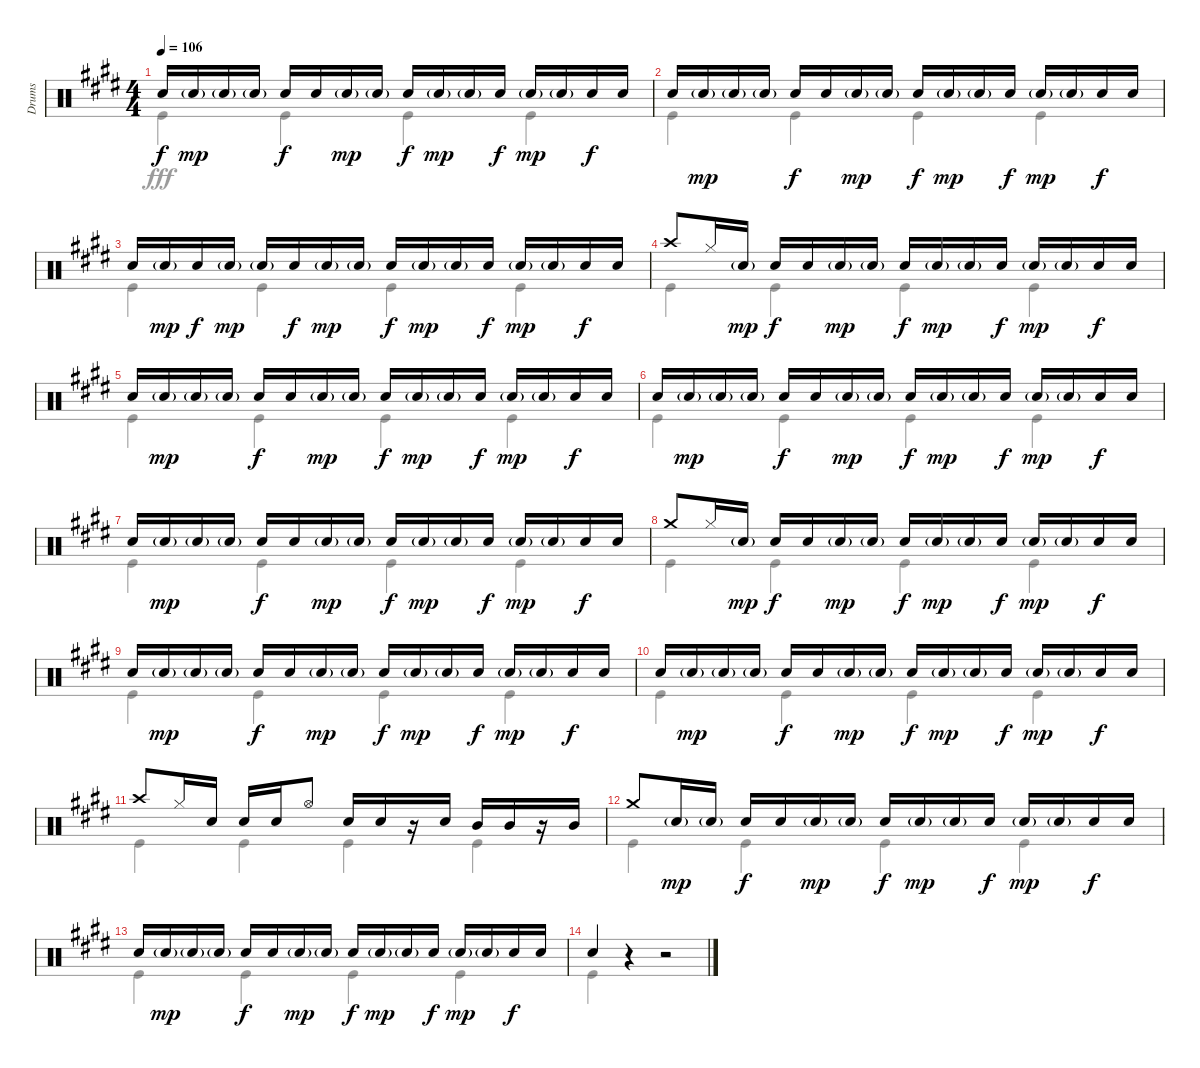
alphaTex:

\track ("Drums" "Drums") {instrument percussion}
\staff {score}
\articulation defaults
\voice
\ts (4 4)
\tempo 106
\clef neutral
\ks e "Snare (hit) 2".16{dy f} "Snare (hit) 2"{g}.16{dy mp} "Snare (hit) 2"{g}.16 "Snare (hit) 2"{g}.16 "Snare (hit) 2".16{dy f} "Snare (hit) 2".16 "Snare (hit) 2"{g}.16{dy mp} "Snare (hit) 2"{g}.16 "Snare (hit) 2".16{dy f} "Snare (hit) 2"{g}.16{dy mp} "Snare (hit) 2"{g}.16 "Snare (hit) 2".16{dy f} "Snare (hit) 2"{g}.16{dy mp} "Snare (hit) 2"{g}.16 "Snare (hit) 2".16{dy f} "Snare (hit) 2".16
|
"Snare (hit) 2".16 "Snare (hit) 2"{g}.16{dy mp} "Snare (hit) 2"{g}.16 "Snare (hit) 2"{g}.16 "Snare (hit) 2".16{dy f} "Snare (hit) 2".16 "Snare (hit) 2"{g}.16{dy mp} "Snare (hit) 2"{g}.16 "Snare (hit) 2".16{dy f} "Snare (hit) 2"{g}.16{dy mp} "Snare (hit) 2"{g}.16 "Snare (hit) 2".16{dy f} "Snare (hit) 2"{g}.16{dy mp} "Snare (hit) 2"{g}.16 "Snare (hit) 2".16{dy f} "Snare (hit) 2".16 |
"Snare (hit) 2".16 "Snare (hit) 2"{g}.16{dy mp} "Snare (hit) 2".16{dy f} "Snare (hit) 2"{g}.16{dy mp} "Snare (hit) 2"{g}.16 "Snare (hit) 2".16{dy f} "Snare (hit) 2"{g}.16{dy mp} "Snare (hit) 2"{g}.16 "Snare (hit) 2".16{dy f} "Snare (hit) 2"{g}.16{dy mp} "Snare (hit) 2"{g}.16 "Snare (hit) 2".16{dy f} "Snare (hit) 2"{g}.16{dy mp} "Snare (hit) 2"{g}.16 "Snare (hit) 2".16{dy f} "Snare (hit) 2".16 |
"Crash high (hit)".8 "Hi-Hat (closed)".16 "Snare (hit) 2"{g}.16{dy mp} "Snare (hit) 2".16{dy f} "Snare (hit) 2".16 "Snare (hit) 2"{g}.16{dy mp} "Snare (hit) 2"{g}.16 "Snare (hit) 2".16{dy f} "Snare (hit) 2"{g}.16{dy mp} "Snare (hit) 2"{g}.16 "Snare (hit) 2".16{dy f} "Snare (hit) 2"{g}.16{dy mp} "Snare (hit) 2"{g}.16 "Snare (hit) 2".16{dy f} "Snare (hit) 2".16 |
"Snare (hit) 2".16 "Snare (hit) 2"{g}.16{dy mp} "Snare (hit) 2"{g}.16 "Snare (hit) 2"{g}.16 "Snare (hit) 2".16{dy f} "Snare (hit) 2".16 "Snare (hit) 2"{g}.16{dy mp} "Snare (hit) 2"{g}.16 "Snare (hit) 2".16{dy f} "Snare (hit) 2"{g}.16{dy mp} "Snare (hit) 2"{g}.16 "Snare (hit) 2".16{dy f} "Snare (hit) 2"{g}.16{dy mp} "Snare (hit) 2"{g}.16 "Snare (hit) 2".16{dy f} "Snare (hit) 2".16 |
"Snare (hit) 2".16 "Snare (hit) 2"{g}.16{dy mp} "Snare (hit) 2"{g}.16 "Snare (hit) 2"{g}.16 "Snare (hit) 2".16{dy f} "Snare (hit) 2".16 "Snare (hit) 2"{g}.16{dy mp} "Snare (hit) 2"{g}.16 "Snare (hit) 2".16{dy f} "Snare (hit) 2"{g}.16{dy mp} "Snare (hit) 2"{g}.16 "Snare (hit) 2".16{dy f} "Snare (hit) 2"{g}.16{dy mp} "Snare (hit) 2"{g}.16 "Snare (hit) 2".16{dy f} "Snare (hit) 2".16 |
"Snare (hit) 2".16 "Snare (hit) 2"{g}.16{dy mp} "Snare (hit) 2"{g}.16 "Snare (hit) 2"{g}.16 "Snare (hit) 2".16{dy f} "Snare (hit) 2".16 "Snare (hit) 2"{g}.16{dy mp} "Snare (hit) 2"{g}.16 "Snare (hit) 2".16{dy f} "Snare (hit) 2"{g}.16{dy mp} "Snare (hit) 2"{g}.16 "Snare (hit) 2".16{dy f} "Snare (hit) 2"{g}.16{dy mp} "Snare (hit) 2"{g}.16 "Snare (hit) 2".16{dy f} "Snare (hit) 2".16 |
"Crash medium (hit)".8 "Hi-Hat (closed)".16 "Snare (hit) 2"{g}.16{dy mp} "Snare (hit) 2".16{dy f} "Snare (hit) 2".16 "Snare (hit) 2"{g}.16{dy mp} "Snare (hit) 2"{g}.16 "Snare (hit) 2".16{dy f} "Snare (hit) 2"{g}.16{dy mp} "Snare (hit) 2"{g}.16 "Snare (hit) 2".16{dy f} "Snare (hit) 2"{g}.16{dy mp} "Snare (hit) 2"{g}.16 "Snare (hit) 2".16{dy f} "Snare (hit) 2".16 |
"Snare (hit) 2".16 "Snare (hit) 2"{g}.16{dy mp} "Snare (hit) 2"{g}.16 "Snare (hit) 2"{g}.16 "Snare (hit) 2".16{dy f} "Snare (hit) 2".16 "Snare (hit) 2"{g}.16{dy mp} "Snare (hit) 2"{g}.16 "Snare (hit) 2".16{dy f} "Snare (hit) 2"{g}.16{dy mp} "Snare (hit) 2"{g}.16 "Snare (hit) 2".16{dy f} "Snare (hit) 2"{g}.16{dy mp} "Snare (hit) 2"{g}.16 "Snare (hit) 2".16{dy f} "Snare (hit) 2".16 |
"Snare (hit) 2".16 "Snare (hit) 2"{g}.16{dy mp} "Snare (hit) 2"{g}.16 "Snare (hit) 2"{g}.16 "Snare (hit) 2".16{dy f} "Snare (hit) 2".16 "Snare (hit) 2"{g}.16{dy mp} "Snare (hit) 2"{g}.16 "Snare (hit) 2".16{dy f} "Snare (hit) 2"{g}.16{dy mp} "Snare (hit) 2"{g}.16 "Snare (hit) 2".16{dy f} "Snare (hit) 2"{g}.16{dy mp} "Snare (hit) 2"{g}.16 "Snare (hit) 2".16{dy f} "Snare (hit) 2".16 |
"Crash high (hit)".8 "Hi-Hat (closed)".16 "Snare (hit) 2".16 "Snare (hit) 2".16 "Snare (hit) 2".16 "Hi-Hat (open)".8 "Snare (hit) 2".16 "Snare (hit) 2".16 r.16 "Snare (hit) 2".16 "Mid Tom (hit)".16 "Mid Tom (hit)".16 r.16 "Mid Tom (hit)".16 |
"Crash medium (hit)".8 "Snare (hit) 2"{g}.16{dy mp} "Snare (hit) 2"{g}.16 "Snare (hit) 2".16{dy f} "Snare (hit) 2".16 "Snare (hit) 2"{g}.16{dy mp} "Snare (hit) 2"{g}.16 "Snare (hit) 2".16{dy f} "Snare (hit) 2"{g}.16{dy mp} "Snare (hit) 2"{g}.16 "Snare (hit) 2".16{dy f} "Snare (hit) 2"{g}.16{dy mp} "Snare (hit) 2"{g}.16 "Snare (hit) 2".16{dy f} "Snare (hit) 2".16 |
"Snare (hit) 2".16 "Snare (hit) 2"{g}.16{dy mp} "Snare (hit) 2"{g}.16 "Snare (hit) 2"{g}.16 "Snare (hit) 2".16{dy f} "Snare (hit) 2".16 "Snare (hit) 2"{g}.16{dy mp} "Snare (hit) 2"{g}.16 "Snare (hit) 2".16{dy f} "Snare (hit) 2"{g}.16{dy mp} "Snare (hit) 2"{g}.16 "Snare (hit) 2".16{dy f} "Snare (hit) 2"{g}.16{dy mp} "Snare (hit) 2"{g}.16 "Snare (hit) 2".16{dy f} "Snare (hit) 2".16 |
"Snare (hit) 2".4 r.4 r.2
\voice
\clef neutral
\ottava regular
\simile none
\ks e "Kick (hit)".4{dy fff} "Kick (hit)".4 "Kick (hit)".4 "Kick (hit)".4
|
"Kick (hit)".4 "Kick (hit)".4 "Kick (hit)".4 "Kick (hit)".4 |
"Kick (hit)".4 "Kick (hit)".4 "Kick (hit)".4 "Kick (hit)".4 |
"Kick (hit)".4 "Kick (hit)".4 "Kick (hit)".4 "Kick (hit)".4 |
"Kick (hit)".4 "Kick (hit)".4 "Kick (hit)".4 "Kick (hit)".4 |
"Kick (hit)".4 "Kick (hit)".4 "Kick (hit)".4 "Kick (hit)".4 |
"Kick (hit)".4 "Kick (hit)".4 "Kick (hit)".4 "Kick (hit)".4 |
"Kick (hit)".4 "Kick (hit)".4 "Kick (hit)".4 "Kick (hit)".4 |
"Kick (hit)".4 "Kick (hit)".4 "Kick (hit)".4 "Kick (hit)".4 |
"Kick (hit)".4 "Kick (hit)".4 "Kick (hit)".4 "Kick (hit)".4 |
"Kick (hit)".4 "Kick (hit)".4 "Kick (hit)".4 "Kick (hit)".4 |
"Kick (hit)".4 "Kick (hit)".4 "Kick (hit)".4 "Kick (hit)".4 |
"Kick (hit)".4 "Kick (hit)".4 "Kick (hit)".4 "Kick (hit)".4 |
"Kick (hit)".4 r.4 r.2
